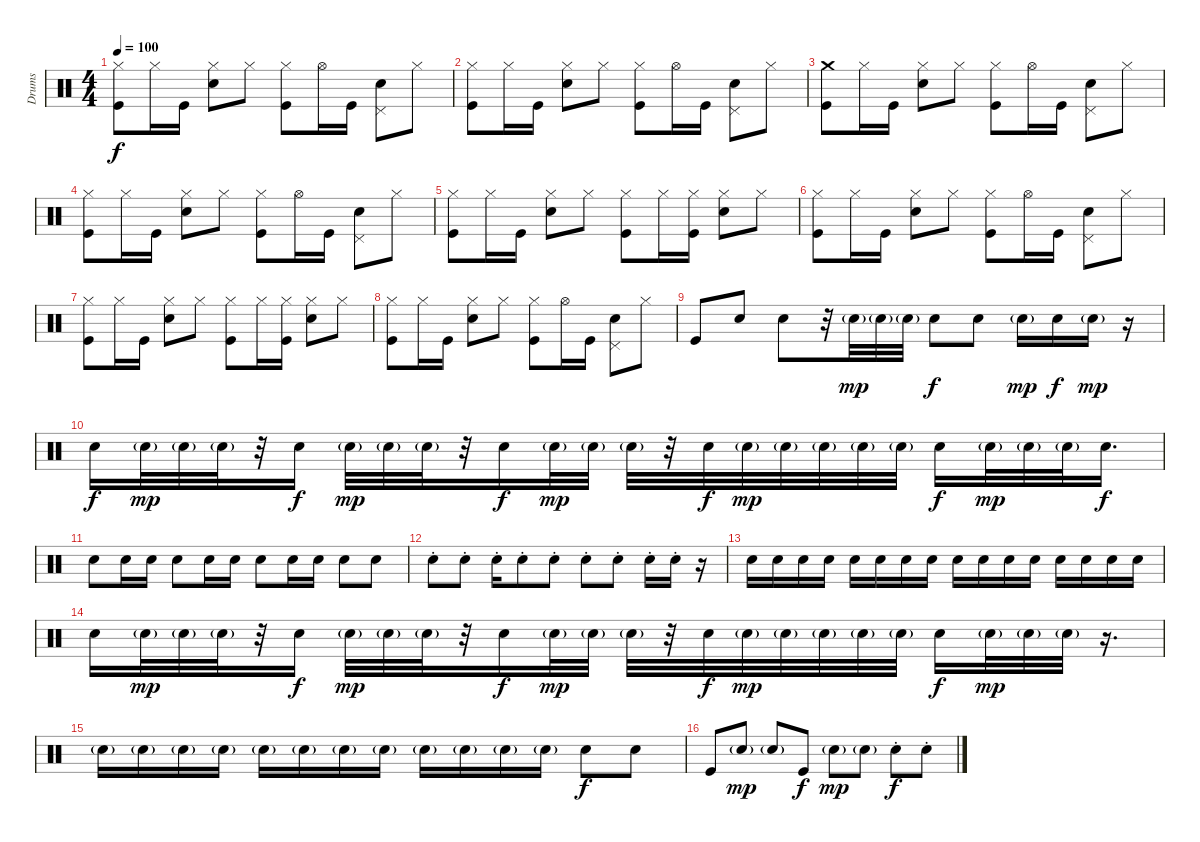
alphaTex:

\track ("Drums" "Drums") {instrument percussion}
\staff {score}
\articulation defaults
\ts (4 4)
\tempo 100
\clef neutral
\ks c
("Hi-Hat (closed)" "Kick (hit)").8{dy f} "Hi-Hat (closed)".16 "Kick (hit)".16 ("Hi-Hat (closed)" "Snare (hit) 2").8 "Hi-Hat (closed)".8 ("Hi-Hat (closed)" "Kick (hit)").8 "Hi-Hat (open)".16 "Kick (hit)".16 ("Pedal Hi-Hat (hit)" "Snare (hit) 2").8 "Hi-Hat (closed)".8 |
("Hi-Hat (closed)" "Kick (hit)").8 "Hi-Hat (closed)".16 "Kick (hit)".16 ("Hi-Hat (closed)" "Snare (hit) 2").8 "Hi-Hat (closed)".8 ("Hi-Hat (closed)" "Kick (hit)").8 "Hi-Hat (open)".16 "Kick (hit)".16 ("Pedal Hi-Hat (hit)" "Snare (hit) 2").8 "Hi-Hat (closed)".8 |
("Crash medium (hit)" "Kick (hit)").8 "Hi-Hat (closed)".16 "Kick (hit)".16 ("Hi-Hat (closed)" "Snare (hit) 2").8 "Hi-Hat (closed)".8 ("Hi-Hat (closed)" "Kick (hit)").8 "Hi-Hat (open)".16 "Kick (hit)".16 ("Pedal Hi-Hat (hit)" "Snare (hit) 2").8 "Hi-Hat (closed)".8 |
("Hi-Hat (closed)" "Kick (hit)").8 "Hi-Hat (closed)".16 "Kick (hit)".16 ("Hi-Hat (closed)" "Snare (hit) 2").8 "Hi-Hat (closed)".8 ("Hi-Hat (closed)" "Kick (hit)").8 "Hi-Hat (open)".16 "Kick (hit)".16 ("Pedal Hi-Hat (hit)" "Snare (hit) 2").8 "Hi-Hat (closed)".8 |
("Hi-Hat (closed)" "Kick (hit)").8 "Hi-Hat (closed)".16 "Kick (hit)".16 ("Hi-Hat (closed)" "Snare (hit) 2").8 "Hi-Hat (closed)".8 ("Hi-Hat (closed)" "Kick (hit)").8 "Hi-Hat (closed)".16 ("Hi-Hat (closed)" "Kick (hit)").16 ("Hi-Hat (closed)" "Snare (hit) 2").8 "Hi-Hat (closed)".8 |
("Hi-Hat (closed)" "Kick (hit)").8 "Hi-Hat (closed)".16 "Kick (hit)".16 ("Hi-Hat (closed)" "Snare (hit) 2").8 "Hi-Hat (closed)".8 ("Hi-Hat (closed)" "Kick (hit)").8 "Hi-Hat (open)".16 "Kick (hit)".16 ("Pedal Hi-Hat (hit)" "Snare (hit) 2").8 "Hi-Hat (closed)".8 |
("Hi-Hat (closed)" "Kick (hit)").8 "Hi-Hat (closed)".16 "Kick (hit)".16 ("Hi-Hat (closed)" "Snare (hit) 2").8 "Hi-Hat (closed)".8 ("Hi-Hat (closed)" "Kick (hit)").8 "Hi-Hat (closed)".16 ("Hi-Hat (closed)" "Kick (hit)").16 ("Hi-Hat (closed)" "Snare (hit) 2").8 "Hi-Hat (closed)".8 |
("Hi-Hat (closed)" "Kick (hit)").8 "Hi-Hat (closed)".16 "Kick (hit)".16 ("Hi-Hat (closed)" "Snare (hit) 2").8 "Hi-Hat (closed)".8 ("Hi-Hat (closed)" "Kick (hit)").8 "Hi-Hat (open)".16 "Kick (hit)".16 ("Pedal Hi-Hat (hit)" "Snare (hit) 2").8 "Hi-Hat (closed)".8 |
"Kick (hit)".8 "Snare (hit) 2".8 "Snare (hit) 2".8 r.32 "Electric Snare (hit)"{g}.32{dy mp} "Electric Snare (hit)"{g}.32 "Electric Snare (hit)"{g}.32 "Snare (hit) 2".8{dy f} "Snare (hit) 2".8 "Electric Snare (hit)"{g}.16{dy mp} "Snare (hit) 2".16{dy f} "Electric Snare (hit)"{g}.16{dy mp} r.16 |
"Electric Snare (hit)".16{dy f} "Electric Snare (hit)"{g}.32{dy mp} "Electric Snare (hit)"{g}.32 "Electric Snare (hit)"{g}.32 r.32 "Electric Snare (hit)".16{dy f} "Electric Snare (hit)"{g}.32{dy mp} "Electric Snare (hit)"{g}.32 "Electric Snare (hit)"{g}.32 r.32 "Electric Snare (hit)".16{dy f} "Electric Snare (hit)"{g}.32{dy mp} "Electric Snare (hit)"{g}.32 "Electric Snare (hit)"{g}.32 r.32 "Electric Snare (hit)".32{dy f} "Electric Snare (hit)"{g}.32{dy mp} "Electric Snare (hit)"{g}.32 "Electric Snare (hit)"{g}.32 "Electric Snare (hit)"{g}.32 "Electric Snare (hit)"{g}.32 "Electric Snare (hit)".16{dy f} "Electric Snare (hit)"{g}.32{dy mp} "Electric Snare (hit)"{g}.32 "Electric Snare (hit)"{g}.32 "Electric Snare (hit)".16{d dy f} |
"Snare (hit) 2".8 "Snare (hit) 2".16 "Snare (hit) 2".16 "Snare (hit) 2".8 "Snare (hit) 2".16 "Snare (hit) 2".16 "Snare (hit) 2".8 "Snare (hit) 2".16 "Snare (hit) 2".16 "Electric Snare (hit)".8 "Electric Snare (hit)".8 |
"Snare (hit) 2"{st}.8 "Snare (hit) 2"{st}.8 "Snare (hit) 2"{st}.16 "Snare (hit) 2"{st}.8 "Snare (hit) 2"{st}.8 "Snare (hit) 2"{st}.8 "Snare (hit) 2"{st}.8 "Snare (hit) 2"{st}.16 "Snare (hit) 2"{st}.16 r.16 |
"Snare (hit) 2".16 "Electric Snare (hit)".16 "Electric Snare (hit)".16 "Snare (hit) 2".16 "Electric Snare (hit)".16 "Electric Snare (hit)".16 "Snare (hit) 2".16 "Electric Snare (hit)".16 "Electric Snare (hit)".16 "Snare (hit) 2".16 "Electric Snare (hit)".16 "Electric Snare (hit)".16 "Snare (hit) 2".16 "Electric Snare (hit)".16 "Electric Snare (hit)".16 "Electric Snare (hit)".16 |
"Electric Snare (hit)".16 "Electric Snare (hit)"{g}.32{dy mp} "Electric Snare (hit)"{g}.32 "Electric Snare (hit)"{g}.32 r.32 "Electric Snare (hit)".16{dy f} "Electric Snare (hit)"{g}.32{dy mp} "Electric Snare (hit)"{g}.32 "Electric Snare (hit)"{g}.32 r.32 "Electric Snare (hit)".16{dy f} "Electric Snare (hit)"{g}.32{dy mp} "Electric Snare (hit)"{g}.32 "Electric Snare (hit)"{g}.32 r.32 "Electric Snare (hit)".32{dy f} "Electric Snare (hit)"{g}.32{dy mp} "Electric Snare (hit)"{g}.32 "Electric Snare (hit)"{g}.32 "Electric Snare (hit)"{g}.32 "Electric Snare (hit)"{g}.32 "Electric Snare (hit)".16{dy f} "Electric Snare (hit)"{g}.32{dy mp} "Electric Snare (hit)"{g}.32 "Electric Snare (hit)"{g}.32 r.16{d} |
"Electric Snare (hit)"{g}.16 "Snare (hit) 2"{g}.16 "Snare (hit) 2"{g}.16 "Electric Snare (hit)"{g}.16 "Snare (hit) 2"{g}.16 "Snare (hit) 2"{g}.16 "Electric Snare (hit)"{g}.16 "Snare (hit) 2"{g}.16 "Snare (hit) 2"{g}.16 "Electric Snare (hit)"{g}.16 "Snare (hit) 2"{g}.16 "Snare (hit) 2"{g}.16 "Snare (hit) 2".8{dy f} "Snare (hit) 2".8 |
"Kick (hit)".8 "Electric Snare (hit)"{g}.8{dy mp} "Electric Snare (hit)"{g}.8 "Kick (hit)".8{dy f} "Electric Snare (hit)"{g}.8{dy mp} "Electric Snare (hit)"{g}.8 "Snare (hit) 2"{st}.8{dy f} "Snare (hit) 2"{st}.8
